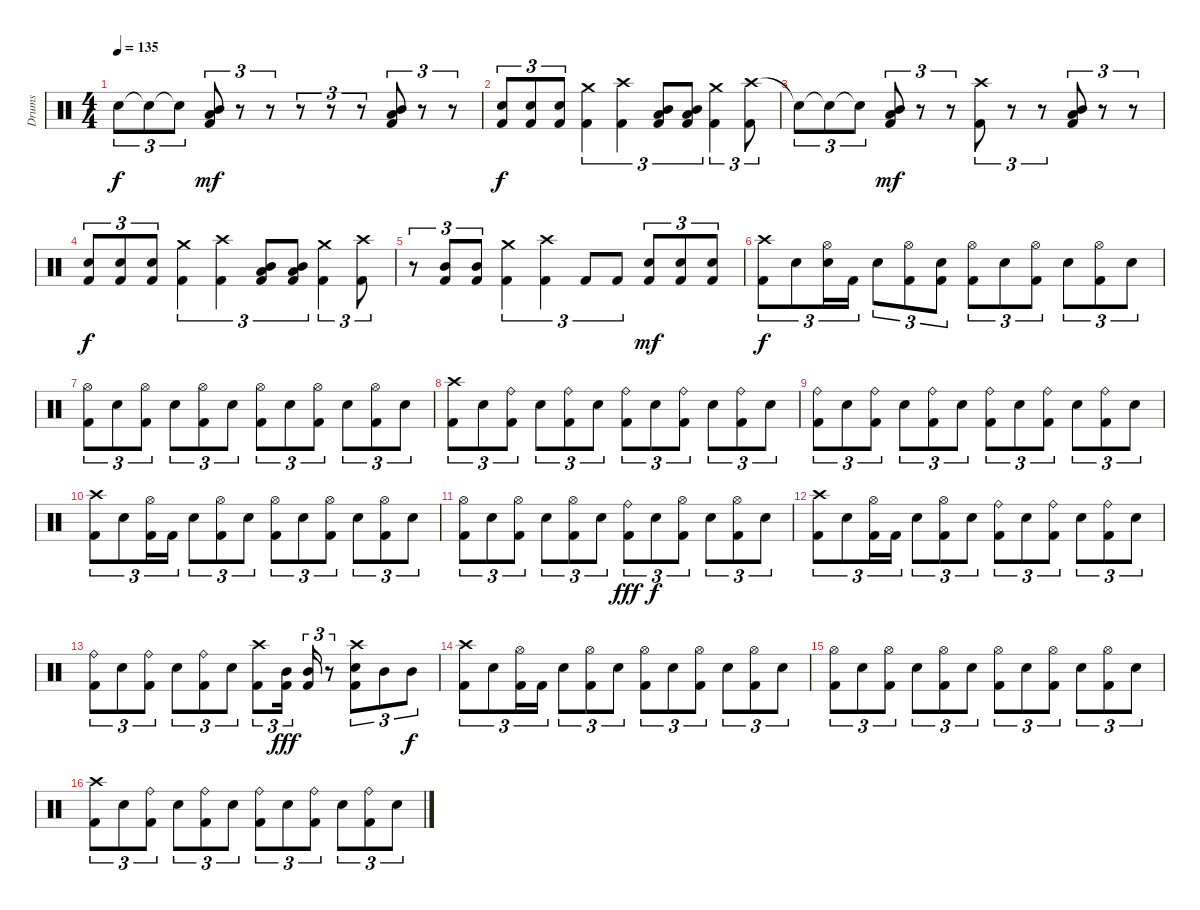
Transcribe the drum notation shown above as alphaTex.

\track ("Drums" "Drums") {instrument percussion}
\staff {score}
\articulation defaults
\ts (4 4)
\tempo 135
\clef neutral
\ks c "Snare (hit)"{t}.8{tu (3 2) dy f} "Snare (hit)"{t}.8{tu (3 2)} "Snare (hit)"{t}.8{tu (3 2)}
("Mid Tom (hit)" "Low Tom (hit)" "Kick (hit) 2").8{tu (3 2) dy mf} r.8{tu (3 2)} r.8{tu (3 2)} r.8{tu (3 2)} r.8{tu (3 2)} r.8{tu (3 2)} ("Mid Tom (hit)" "Low Tom (hit)" "Kick (hit) 2").8{tu (3 2)} r.8{tu (3 2)} r.8{tu (3 2)} |
("Snare (hit) 2" "Kick (hit) 2").8{tu (3 2) dy f} ("Snare (hit) 2" "Kick (hit) 2").8{tu (3 2)} ("Snare (hit) 2" "Kick (hit) 2").8{tu (3 2)} ("Crash medium (hit)" "Kick (hit) 2").4{tu (3 2)} ("Crash high (hit)" "Kick (hit) 2").4{tu (3 2)} ("Mid Tom (hit)" "Low Tom (hit)" "Kick (hit) 2").8{tu (3 2)} ("Mid Tom (hit)" "Low Tom (hit)" "Kick (hit) 2").8{tu (3 2)} ("Crash medium (hit)" "Kick (hit) 2").4{tu (3 2)} ("Crash high (hit)" "Kick (hit) 2").8{tu (3 2)} |
"Snare (hit)"{t}.8{tu (3 2)} "Snare (hit)"{t}.8{tu (3 2)} "Snare (hit)"{t}.8{tu (3 2)} ("Low Tom (hit)" "Mid Tom (hit)" "Kick (hit) 2").8{tu (3 2) dy mf} r.8{tu (3 2)} r.8{tu (3 2)} ("Crash high (hit)" "Kick (hit) 2").8{tu (3 2)} r.8{tu (3 2)} r.8{tu (3 2)} ("Mid Tom (hit)" "Low Tom (hit)" "Kick (hit) 2").8{tu (3 2)} r.8{tu (3 2)} r.8{tu (3 2)} |
("Snare (hit) 2" "Kick (hit) 2").8{tu (3 2) dy f} ("Snare (hit) 2" "Kick (hit) 2").8{tu (3 2)} ("Snare (hit) 2" "Kick (hit) 2").8{tu (3 2)} ("Crash medium (hit)" "Kick (hit) 2").4{tu (3 2)} ("Crash high (hit)" "Kick (hit) 2").4{tu (3 2)} ("Mid Tom (hit)" "Low Tom (hit)" "Kick (hit) 2").8{tu (3 2)} ("Mid Tom (hit)" "Low Tom (hit)" "Kick (hit) 2").8{tu (3 2)} ("Crash medium (hit)" "Kick (hit) 2").4{tu (3 2)} ("Crash high (hit)" "Kick (hit) 2").8{tu (3 2)} |
r.8{tu (3 2)} ("Mid Tom (hit)" "Kick (hit) 2").8{tu (3 2)} ("Mid Tom (hit)" "Kick (hit) 2").8{tu (3 2)} ("Crash medium (hit)" "Kick (hit) 2").4{tu (3 2)} ("Crash high (hit)" "Kick (hit) 2").4{tu (3 2)} "Kick (hit) 2".8{tu (3 2)} "Kick (hit) 2".8{tu (3 2)} ("Snare (hit) 2" "Kick (hit) 2").8{tu (3 2) dy mf} ("Snare (hit) 2" "Kick (hit) 2").8{tu (3 2)} ("Snare (hit) 2" "Kick (hit) 2").8{tu (3 2)} |
("Crash high (hit)" "Kick (hit) 2").8{tu (3 2) dy f} "Snare (hit) 2".8{tu (3 2)} ("Hi-Hat (open)" "Snare (hit) 2").16{tu (3 2)} "Kick (hit) 2".16{tu (3 2)} "Snare (hit) 2".8{tu (3 2)} ("Hi-Hat (open)" "Kick (hit) 2").8{tu (3 2)} ("Snare (hit) 2" "Kick (hit) 2").8{tu (3 2)} ("Hi-Hat (open)" "Kick (hit) 2").8{tu (3 2)} "Snare (hit) 2".8{tu (3 2)} ("Hi-Hat (open)" "Kick (hit) 2").8{tu (3 2)} "Snare (hit) 2".8{tu (3 2)} ("Hi-Hat (open)" "Kick (hit) 2").8{tu (3 2)} "Snare (hit) 2".8{tu (3 2)} |
("Hi-Hat (open)" "Kick (hit) 2").8{tu (3 2)} "Snare (hit) 2".8{tu (3 2)} ("Hi-Hat (open)" "Kick (hit) 2").8{tu (3 2)} "Snare (hit) 2".8{tu (3 2)} ("Hi-Hat (open)" "Kick (hit) 2").8{tu (3 2)} "Snare (hit) 2".8{tu (3 2)} ("Hi-Hat (open)" "Kick (hit) 2").8{tu (3 2)} "Snare (hit) 2".8{tu (3 2)} ("Hi-Hat (open)" "Kick (hit) 2").8{tu (3 2)} "Snare (hit) 2".8{tu (3 2)} ("Hi-Hat (open)" "Kick (hit) 2").8{tu (3 2)} "Snare (hit) 2".8{tu (3 2)} |
("Crash high (hit)" "Kick (hit) 2").8{tu (3 2)} "Snare (hit) 2".8{tu (3 2)} ("Ride (bell)" "Kick (hit) 2").8{tu (3 2)} "Snare (hit) 2".8{tu (3 2)} ("Ride (bell)" "Kick (hit) 2").8{tu (3 2)} "Snare (hit) 2".8{tu (3 2)} ("Ride (bell)" "Kick (hit) 2").8{tu (3 2)} "Snare (hit) 2".8{tu (3 2)} ("Ride (bell)" "Kick (hit) 2").8{tu (3 2)} "Snare (hit) 2".8{tu (3 2)} ("Ride (bell)" "Kick (hit) 2").8{tu (3 2)} "Snare (hit) 2".8{tu (3 2)} |
("Ride (bell)" "Kick (hit) 2").8{tu (3 2)} "Snare (hit) 2".8{tu (3 2)} ("Ride (bell)" "Kick (hit) 2").8{tu (3 2)} "Snare (hit) 2".8{tu (3 2)} ("Ride (bell)" "Kick (hit) 2").8{tu (3 2)} "Snare (hit) 2".8{tu (3 2)} ("Ride (bell)" "Kick (hit) 2").8{tu (3 2)} "Snare (hit) 2".8{tu (3 2)} ("Ride (bell)" "Kick (hit) 2").8{tu (3 2)} "Snare (hit) 2".8{tu (3 2)} ("Ride (bell)" "Kick (hit) 2").8{tu (3 2)} "Snare (hit) 2".8{tu (3 2)} |
("Crash high (hit)" "Kick (hit) 2").8{tu (3 2)} "Snare (hit) 2".8{tu (3 2)} ("Hi-Hat (open)" "Kick (hit) 2").16{tu (3 2)} "Kick (hit) 2".16{tu (3 2)} "Snare (hit) 2".8{tu (3 2)} ("Hi-Hat (open)" "Kick (hit) 2").8{tu (3 2)} "Snare (hit) 2".8{tu (3 2)} ("Hi-Hat (open)" "Kick (hit) 2").8{tu (3 2)} "Snare (hit) 2".8{tu (3 2)} ("Hi-Hat (open)" "Kick (hit) 2").8{tu (3 2)} "Snare (hit) 2".8{tu (3 2)} ("Hi-Hat (open)" "Kick (hit) 2").8{tu (3 2)} "Snare (hit) 2".8{tu (3 2)} |
("Hi-Hat (open)" "Kick (hit) 2").8{tu (3 2)} "Snare (hit) 2".8{tu (3 2)} ("Hi-Hat (open)" "Kick (hit) 2").8{tu (3 2)} "Snare (hit) 2".8{tu (3 2)} ("Hi-Hat (open)" "Kick (hit) 2").8{tu (3 2)} "Snare (hit) 2".8{tu (3 2)} ("Ride (bell)" "Kick (hit) 2").8{tu (3 2) dy fff} "Snare (hit) 2".8{tu (3 2) dy f} ("Hi-Hat (open)" "Kick (hit) 2").8{tu (3 2)} "Snare (hit) 2".8{tu (3 2)} ("Hi-Hat (open)" "Kick (hit) 2").8{tu (3 2)} "Snare (hit) 2".8{tu (3 2)} |
("Crash high (hit)" "Kick (hit) 2").8{tu (3 2)} "Snare (hit) 2".8{tu (3 2)} ("Hi-Hat (open)" "Kick (hit) 2").16{tu (3 2)} "Kick (hit) 2".16{tu (3 2)} "Snare (hit) 2".8{tu (3 2)} ("Hi-Hat (open)" "Kick (hit) 2").8{tu (3 2)} "Snare (hit) 2".8{tu (3 2)} ("Ride (bell)" "Kick (hit) 2").8{tu (3 2)} "Snare (hit) 2".8{tu (3 2)} ("Ride (bell)" "Kick (hit) 2").8{tu (3 2)} "Snare (hit) 2".8{tu (3 2)} ("Ride (bell)" "Kick (hit) 2").8{tu (3 2)} "Snare (hit) 2".8{tu (3 2)} |
("Ride (bell)" "Kick (hit) 2").8{tu (3 2)} "Snare (hit) 2".8{tu (3 2)} ("Ride (bell)" "Kick (hit) 2").8{tu (3 2)} "Snare (hit) 2".8{tu (3 2)} ("Ride (bell)" "Kick (hit) 2").8{tu (3 2)} "Snare (hit) 2".8{tu (3 2)} ("Crash high (hit)" "Kick (hit) 2").8{tu (3 2)} ("Mid Tom (hit)" "Kick (hit) 2").16{tu (3 2) dy fff} ("Mid Tom (hit)" "Kick (hit) 2").16{tu (3 2)} r.8{tu (3 2)} ("Crash high (hit)" "Snare (hit) 2" "Kick (hit) 2").8{tu (3 2)} "Mid Tom (hit)".8{tu (3 2)} "Mid Tom (hit)".8{tu (3 2) dy f} |
("Crash high (hit)" "Kick (hit) 2").8{tu (3 2)} "Snare (hit) 2".8{tu (3 2)} ("Hi-Hat (open)" "Kick (hit) 2").16{tu (3 2)} "Kick (hit) 2".16{tu (3 2)} "Snare (hit) 2".8{tu (3 2)} ("Hi-Hat (open)" "Kick (hit) 2").8{tu (3 2)} "Snare (hit) 2".8{tu (3 2)} ("Hi-Hat (open)" "Kick (hit) 2").8{tu (3 2)} "Snare (hit) 2".8{tu (3 2)} ("Hi-Hat (open)" "Kick (hit) 2").8{tu (3 2)} "Snare (hit) 2".8{tu (3 2)} ("Hi-Hat (open)" "Kick (hit) 2").8{tu (3 2)} "Snare (hit) 2".8{tu (3 2)} |
("Hi-Hat (open)" "Kick (hit) 2").8{tu (3 2)} "Snare (hit) 2".8{tu (3 2)} ("Hi-Hat (open)" "Kick (hit) 2").8{tu (3 2)} "Snare (hit) 2".8{tu (3 2)} ("Hi-Hat (open)" "Kick (hit) 2").8{tu (3 2)} "Snare (hit) 2".8{tu (3 2)} ("Hi-Hat (open)" "Kick (hit) 2").8{tu (3 2)} "Snare (hit) 2".8{tu (3 2)} ("Hi-Hat (open)" "Kick (hit) 2").8{tu (3 2)} "Snare (hit) 2".8{tu (3 2)} ("Hi-Hat (open)" "Kick (hit) 2").8{tu (3 2)} "Snare (hit) 2".8{tu (3 2)} |
("Crash high (hit)" "Kick (hit) 2").8{tu (3 2)} "Snare (hit) 2".8{tu (3 2)} ("Ride (bell)" "Kick (hit) 2").8{tu (3 2)} "Snare (hit) 2".8{tu (3 2)} ("Ride (bell)" "Kick (hit) 2").8{tu (3 2)} "Snare (hit) 2".8{tu (3 2)} ("Ride (bell)" "Kick (hit) 2").8{tu (3 2)} "Snare (hit) 2".8{tu (3 2)} ("Ride (bell)" "Kick (hit) 2").8{tu (3 2)} "Snare (hit) 2".8{tu (3 2)} ("Ride (bell)" "Kick (hit) 2").8{tu (3 2)} "Snare (hit) 2".8{tu (3 2)}
